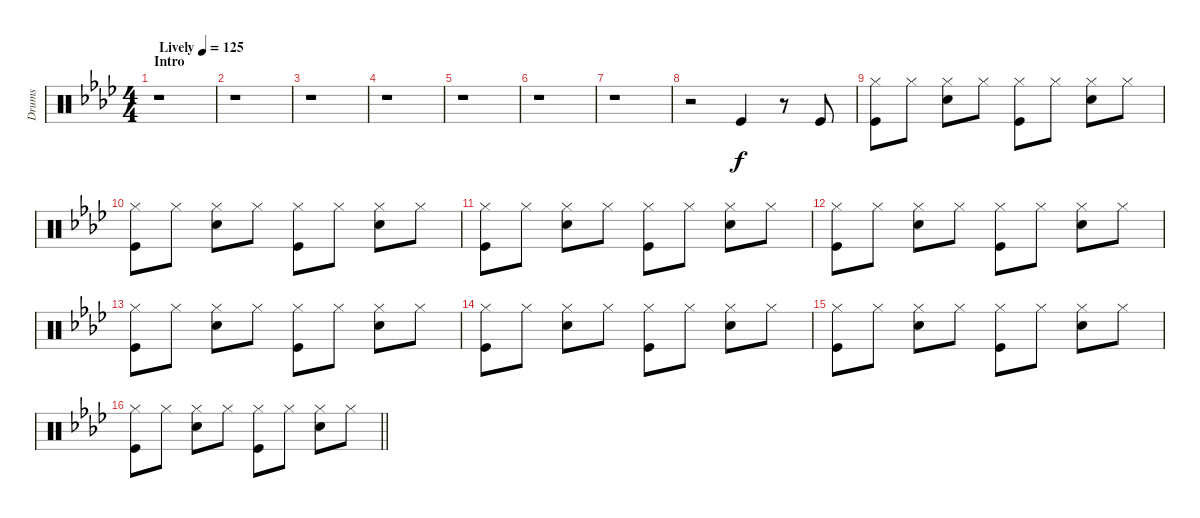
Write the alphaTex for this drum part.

\track ("Drums" "Drums") {instrument percussion}
\staff {score}
\articulation defaults
\ts (4 4)
\section ("" "Intro")
\tempo (125 "Lively")
\clef neutral
\ks ab
r.1{dy f} |
r.1 |
r.1 |
r.1 |
r.1 |
r.1 |
r.1 |
r.2 "Kick (hit)".4 r.8 "Kick (hit)".8 |
("Kick (hit)" "Hi-Hat (closed)").8 "Hi-Hat (closed)".8 ("Electric Snare (hit)" "Hi-Hat (closed)").8 "Hi-Hat (closed)".8 ("Kick (hit)" "Hi-Hat (closed)").8 "Hi-Hat (closed)".8 ("Electric Snare (hit)" "Hi-Hat (closed)").8 "Hi-Hat (closed)".8 |
("Kick (hit)" "Hi-Hat (closed)").8 "Hi-Hat (closed)".8 ("Electric Snare (hit)" "Hi-Hat (closed)").8 "Hi-Hat (closed)".8 ("Kick (hit)" "Hi-Hat (closed)").8 "Hi-Hat (closed)".8 ("Electric Snare (hit)" "Hi-Hat (closed)").8 "Hi-Hat (closed)".8 |
("Kick (hit)" "Hi-Hat (closed)").8 "Hi-Hat (closed)".8 ("Electric Snare (hit)" "Hi-Hat (closed)").8 "Hi-Hat (closed)".8 ("Kick (hit)" "Hi-Hat (closed)").8 "Hi-Hat (closed)".8 ("Electric Snare (hit)" "Hi-Hat (closed)").8 "Hi-Hat (closed)".8 |
("Kick (hit)" "Hi-Hat (closed)").8 "Hi-Hat (closed)".8 ("Electric Snare (hit)" "Hi-Hat (closed)").8 "Hi-Hat (closed)".8 ("Kick (hit)" "Hi-Hat (closed)").8 "Hi-Hat (closed)".8 ("Electric Snare (hit)" "Hi-Hat (closed)").8 "Hi-Hat (closed)".8 |
("Kick (hit)" "Hi-Hat (closed)").8 "Hi-Hat (closed)".8 ("Electric Snare (hit)" "Hi-Hat (closed)").8 "Hi-Hat (closed)".8 ("Kick (hit)" "Hi-Hat (closed)").8 "Hi-Hat (closed)".8 ("Electric Snare (hit)" "Hi-Hat (closed)").8 "Hi-Hat (closed)".8 |
("Kick (hit)" "Hi-Hat (closed)").8 "Hi-Hat (closed)".8 ("Electric Snare (hit)" "Hi-Hat (closed)").8 "Hi-Hat (closed)".8 ("Kick (hit)" "Hi-Hat (closed)").8 "Hi-Hat (closed)".8 ("Electric Snare (hit)" "Hi-Hat (closed)").8 "Hi-Hat (closed)".8 |
("Kick (hit)" "Hi-Hat (closed)").8 "Hi-Hat (closed)".8 ("Electric Snare (hit)" "Hi-Hat (closed)").8 "Hi-Hat (closed)".8 ("Kick (hit)" "Hi-Hat (closed)").8 "Hi-Hat (closed)".8 ("Electric Snare (hit)" "Hi-Hat (closed)").8 "Hi-Hat (closed)".8 |
\barLineRight lightlight
("Kick (hit)" "Hi-Hat (closed)").8 "Hi-Hat (closed)".8 ("Electric Snare (hit)" "Hi-Hat (closed)").8 "Hi-Hat (closed)".8 ("Kick (hit)" "Hi-Hat (closed)").8 "Hi-Hat (closed)".8 ("Electric Snare (hit)" "Hi-Hat (closed)").8 "Hi-Hat (closed)".8
